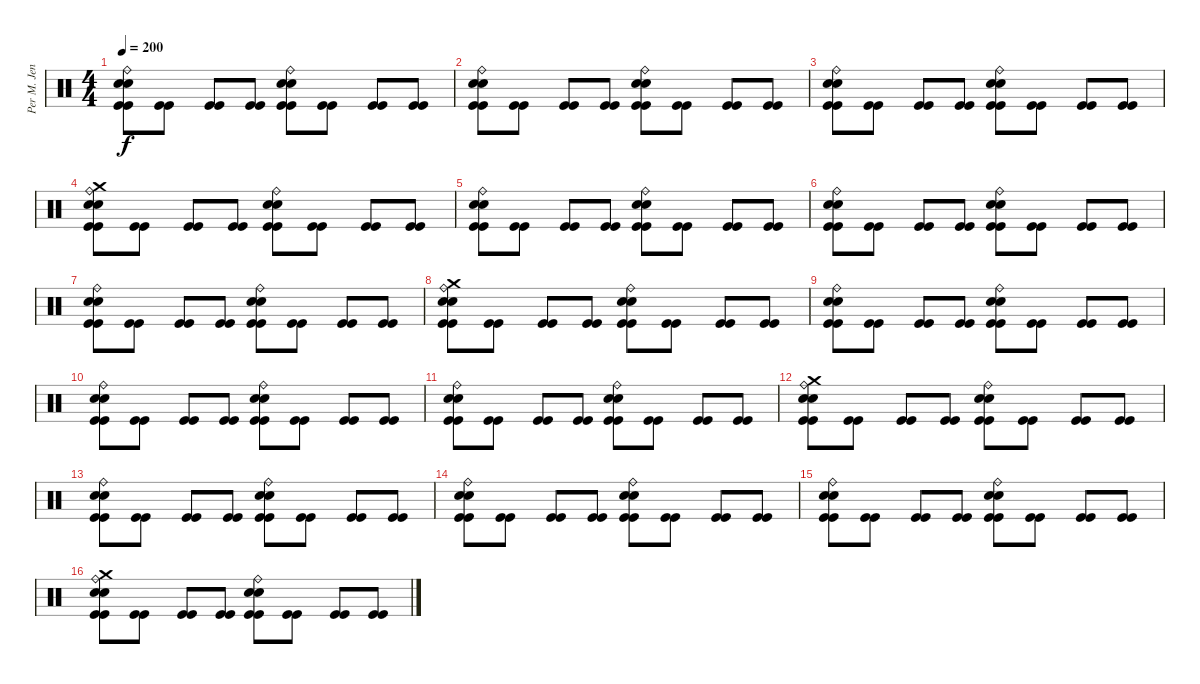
\track ("Per M. Jensen" "Per M. Jen") {instrument percussion}
\staff {score}
\articulation defaults
\ts (4 4)
\tempo 200
\clef neutral
\ks c
("Ride (bell)" "Snare (hit) 2" "Snare (hit) 2" "Kick (hit)" "Kick (hit)").8{dy f} ("Kick (hit)" "Kick (hit)").8 ("Kick (hit)" "Kick (hit)").8 ("Kick (hit)" "Kick (hit)").8 ("Ride (bell)" "Snare (hit) 2" "Snare (hit) 2" "Kick (hit)" "Kick (hit)").8 ("Kick (hit)" "Kick (hit)").8 ("Kick (hit)" "Kick (hit)").8 ("Kick (hit)" "Kick (hit)").8 |
("Ride (bell)" "Snare (hit) 2" "Snare (hit) 2" "Kick (hit)" "Kick (hit)").8 ("Kick (hit)" "Kick (hit)").8 ("Kick (hit)" "Kick (hit)").8 ("Kick (hit)" "Kick (hit)").8 ("Ride (bell)" "Snare (hit) 2" "Snare (hit) 2" "Kick (hit)" "Kick (hit)").8 ("Kick (hit)" "Kick (hit)").8 ("Kick (hit)" "Kick (hit)").8 ("Kick (hit)" "Kick (hit)").8 |
("Ride (bell)" "Snare (hit) 2" "Snare (hit) 2" "Kick (hit)" "Kick (hit)").8 ("Kick (hit)" "Kick (hit)").8 ("Kick (hit)" "Kick (hit)").8 ("Kick (hit)" "Kick (hit)").8 ("Ride (bell)" "Snare (hit) 2" "Snare (hit) 2" "Kick (hit)" "Kick (hit)").8 ("Kick (hit)" "Kick (hit)").8 ("Kick (hit)" "Kick (hit)").8 ("Kick (hit)" "Kick (hit)").8 |
("Crash medium (hit)" "Ride (bell)" "Snare (hit) 2" "Snare (hit) 2" "Kick (hit)" "Kick (hit)").8 ("Kick (hit)" "Kick (hit)").8 ("Kick (hit)" "Kick (hit)").8 ("Kick (hit)" "Kick (hit)").8 ("Ride (bell)" "Snare (hit) 2" "Snare (hit) 2" "Kick (hit)" "Kick (hit)").8 ("Kick (hit)" "Kick (hit)").8 ("Kick (hit)" "Kick (hit)").8 ("Kick (hit)" "Kick (hit)").8 |
("Ride (bell)" "Snare (hit) 2" "Snare (hit) 2" "Kick (hit)" "Kick (hit)").8 ("Kick (hit)" "Kick (hit)").8 ("Kick (hit)" "Kick (hit)").8 ("Kick (hit)" "Kick (hit)").8 ("Ride (bell)" "Snare (hit) 2" "Snare (hit) 2" "Kick (hit)" "Kick (hit)").8 ("Kick (hit)" "Kick (hit)").8 ("Kick (hit)" "Kick (hit)").8 ("Kick (hit)" "Kick (hit)").8 |
("Ride (bell)" "Snare (hit) 2" "Snare (hit) 2" "Kick (hit)" "Kick (hit)").8 ("Kick (hit)" "Kick (hit)").8 ("Kick (hit)" "Kick (hit)").8 ("Kick (hit)" "Kick (hit)").8 ("Ride (bell)" "Snare (hit) 2" "Snare (hit) 2" "Kick (hit)" "Kick (hit)").8 ("Kick (hit)" "Kick (hit)").8 ("Kick (hit)" "Kick (hit)").8 ("Kick (hit)" "Kick (hit)").8 |
("Ride (bell)" "Snare (hit) 2" "Snare (hit) 2" "Kick (hit)" "Kick (hit)").8 ("Kick (hit)" "Kick (hit)").8 ("Kick (hit)" "Kick (hit)").8 ("Kick (hit)" "Kick (hit)").8 ("Ride (bell)" "Snare (hit) 2" "Snare (hit) 2" "Kick (hit)" "Kick (hit)").8 ("Kick (hit)" "Kick (hit)").8 ("Kick (hit)" "Kick (hit)").8 ("Kick (hit)" "Kick (hit)").8 |
("Crash medium (hit)" "Ride (bell)" "Snare (hit) 2" "Snare (hit) 2" "Kick (hit)" "Kick (hit)").8 ("Kick (hit)" "Kick (hit)").8 ("Kick (hit)" "Kick (hit)").8 ("Kick (hit)" "Kick (hit)").8 ("Ride (bell)" "Snare (hit) 2" "Snare (hit) 2" "Kick (hit)" "Kick (hit)").8 ("Kick (hit)" "Kick (hit)").8 ("Kick (hit)" "Kick (hit)").8 ("Kick (hit)" "Kick (hit)").8 |
("Ride (bell)" "Snare (hit) 2" "Snare (hit) 2" "Kick (hit)" "Kick (hit)").8 ("Kick (hit)" "Kick (hit)").8 ("Kick (hit)" "Kick (hit)").8 ("Kick (hit)" "Kick (hit)").8 ("Ride (bell)" "Snare (hit) 2" "Snare (hit) 2" "Kick (hit)" "Kick (hit)").8 ("Kick (hit)" "Kick (hit)").8 ("Kick (hit)" "Kick (hit)").8 ("Kick (hit)" "Kick (hit)").8 |
("Ride (bell)" "Snare (hit) 2" "Snare (hit) 2" "Kick (hit)" "Kick (hit)").8 ("Kick (hit)" "Kick (hit)").8 ("Kick (hit)" "Kick (hit)").8 ("Kick (hit)" "Kick (hit)").8 ("Ride (bell)" "Snare (hit) 2" "Snare (hit) 2" "Kick (hit)" "Kick (hit)").8 ("Kick (hit)" "Kick (hit)").8 ("Kick (hit)" "Kick (hit)").8 ("Kick (hit)" "Kick (hit)").8 |
("Ride (bell)" "Snare (hit) 2" "Snare (hit) 2" "Kick (hit)" "Kick (hit)").8 ("Kick (hit)" "Kick (hit)").8 ("Kick (hit)" "Kick (hit)").8 ("Kick (hit)" "Kick (hit)").8 ("Ride (bell)" "Snare (hit) 2" "Snare (hit) 2" "Kick (hit)" "Kick (hit)").8 ("Kick (hit)" "Kick (hit)").8 ("Kick (hit)" "Kick (hit)").8 ("Kick (hit)" "Kick (hit)").8 |
("Crash medium (hit)" "Ride (bell)" "Snare (hit) 2" "Snare (hit) 2" "Kick (hit)" "Kick (hit)").8 ("Kick (hit)" "Kick (hit)").8 ("Kick (hit)" "Kick (hit)").8 ("Kick (hit)" "Kick (hit)").8 ("Ride (bell)" "Snare (hit) 2" "Snare (hit) 2" "Kick (hit)" "Kick (hit)").8 ("Kick (hit)" "Kick (hit)").8 ("Kick (hit)" "Kick (hit)").8 ("Kick (hit)" "Kick (hit)").8 |
("Ride (bell)" "Snare (hit) 2" "Snare (hit) 2" "Kick (hit)" "Kick (hit)").8 ("Kick (hit)" "Kick (hit)").8 ("Kick (hit)" "Kick (hit)").8 ("Kick (hit)" "Kick (hit)").8 ("Ride (bell)" "Snare (hit) 2" "Snare (hit) 2" "Kick (hit)" "Kick (hit)").8 ("Kick (hit)" "Kick (hit)").8 ("Kick (hit)" "Kick (hit)").8 ("Kick (hit)" "Kick (hit)").8 |
("Ride (bell)" "Snare (hit) 2" "Snare (hit) 2" "Kick (hit)" "Kick (hit)").8 ("Kick (hit)" "Kick (hit)").8 ("Kick (hit)" "Kick (hit)").8 ("Kick (hit)" "Kick (hit)").8 ("Ride (bell)" "Snare (hit) 2" "Snare (hit) 2" "Kick (hit)" "Kick (hit)").8 ("Kick (hit)" "Kick (hit)").8 ("Kick (hit)" "Kick (hit)").8 ("Kick (hit)" "Kick (hit)").8 |
("Ride (bell)" "Snare (hit) 2" "Snare (hit) 2" "Kick (hit)" "Kick (hit)").8 ("Kick (hit)" "Kick (hit)").8 ("Kick (hit)" "Kick (hit)").8 ("Kick (hit)" "Kick (hit)").8 ("Ride (bell)" "Snare (hit) 2" "Snare (hit) 2" "Kick (hit)" "Kick (hit)").8 ("Kick (hit)" "Kick (hit)").8 ("Kick (hit)" "Kick (hit)").8 ("Kick (hit)" "Kick (hit)").8 |
("Crash medium (hit)" "Ride (bell)" "Snare (hit) 2" "Snare (hit) 2" "Kick (hit)" "Kick (hit)").8 ("Kick (hit)" "Kick (hit)").8 ("Kick (hit)" "Kick (hit)").8 ("Kick (hit)" "Kick (hit)").8 ("Ride (bell)" "Snare (hit) 2" "Snare (hit) 2" "Kick (hit)" "Kick (hit)").8 ("Kick (hit)" "Kick (hit)").8 ("Kick (hit)" "Kick (hit)").8 ("Kick (hit)" "Kick (hit)").8
